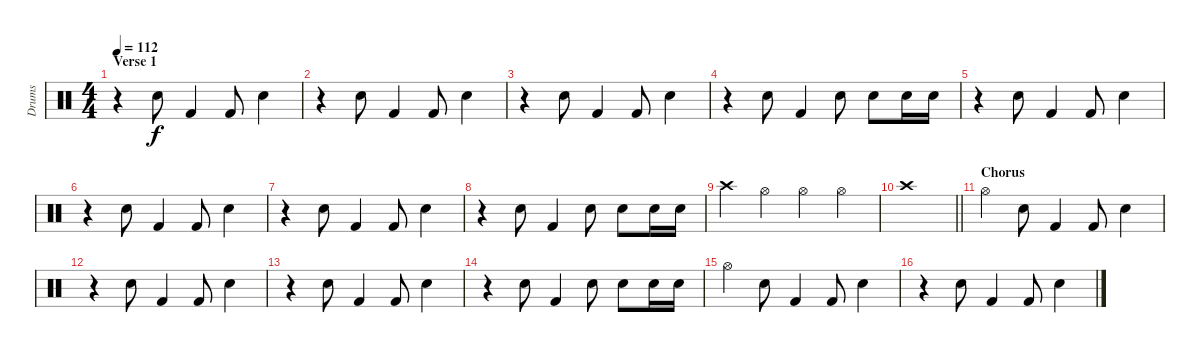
\track ("Drums" "Drums") {instrument percussion}
\staff {score}
\articulation defaults
\ts (4 4)
\section ("" "Verse 1")
\tempo 112
\clef neutral
\ks c
r.4{dy f} "Electric Snare (hit)".8 "Kick (hit) 2".4 "Kick (hit) 2".8 "Electric Snare (hit)".4 |
r.4 "Electric Snare (hit)".8 "Kick (hit) 2".4 "Kick (hit) 2".8 "Electric Snare (hit)".4 |
r.4 "Electric Snare (hit)".8 "Kick (hit) 2".4 "Kick (hit) 2".8 "Electric Snare (hit)".4 |
r.4 "Electric Snare (hit)".8 "Kick (hit) 2".4 "Electric Snare (hit)".8 "Electric Snare (hit)".8 "Electric Snare (hit)".16 "Electric Snare (hit)".16 |
r.4 "Electric Snare (hit)".8 "Kick (hit) 2".4 "Kick (hit) 2".8 "Electric Snare (hit)".4 |
r.4 "Electric Snare (hit)".8 "Kick (hit) 2".4 "Kick (hit) 2".8 "Electric Snare (hit)".4 |
r.4 "Electric Snare (hit)".8 "Kick (hit) 2".4 "Kick (hit) 2".8 "Electric Snare (hit)".4 |
r.4 "Electric Snare (hit)".8 "Kick (hit) 2".4 "Electric Snare (hit)".8 "Electric Snare (hit)".8 "Electric Snare (hit)".16 "Electric Snare (hit)".16 |
"Crash high (hit)".4 "Hi-Hat (open)".4 "Hi-Hat (open)".4 "Hi-Hat (open)".4 |
\barLineRight lightlight "Crash high (hit)".1
|
\section ("" "Chorus")
"Hi-Hat (open)".4 "Electric Snare (hit)".8 "Kick (hit) 2".4 "Kick (hit) 2".8 "Electric Snare (hit)".4 |
r.4 "Electric Snare (hit)".8 "Kick (hit) 2".4 "Kick (hit) 2".8 "Electric Snare (hit)".4 |
r.4 "Electric Snare (hit)".8 "Kick (hit) 2".4 "Kick (hit) 2".8 "Electric Snare (hit)".4 |
r.4 "Electric Snare (hit)".8 "Kick (hit) 2".4 "Electric Snare (hit)".8 "Electric Snare (hit)".8 "Electric Snare (hit)".16 "Electric Snare (hit)".16 |
"Hi-Hat (open)".4 "Electric Snare (hit)".8 "Kick (hit) 2".4 "Kick (hit) 2".8 "Electric Snare (hit)".4 |
r.4 "Electric Snare (hit)".8 "Kick (hit) 2".4 "Kick (hit) 2".8 "Electric Snare (hit)".4
